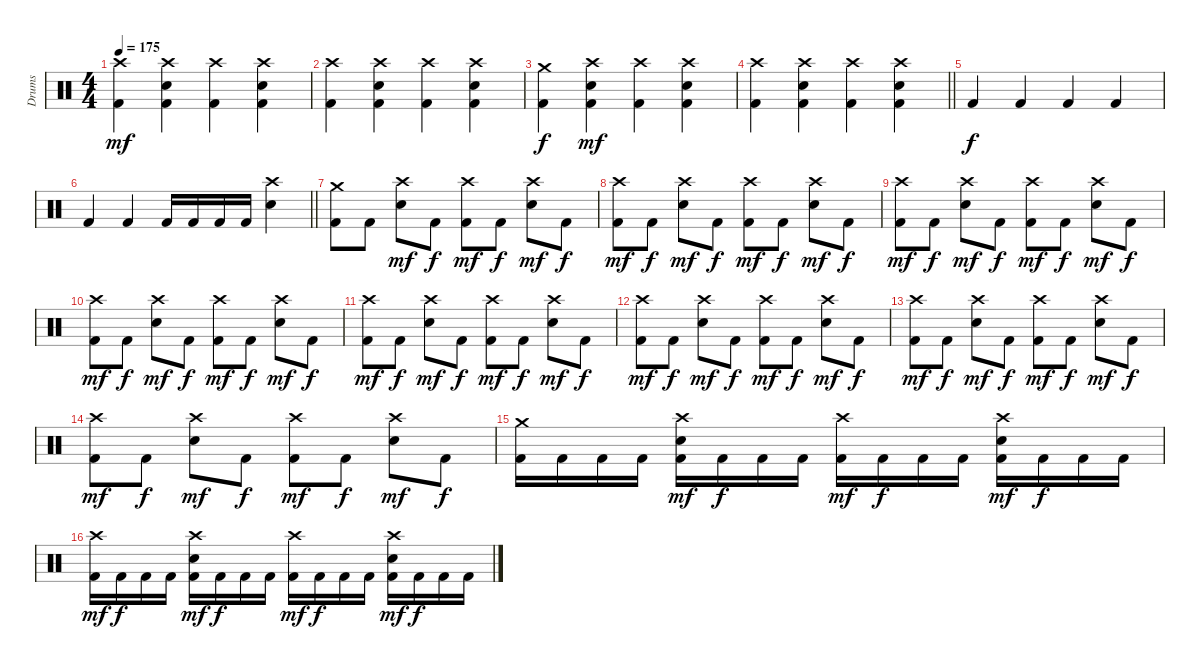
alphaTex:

\track ("Drums" "Drums") {instrument percussion}
\staff {score}
\articulation defaults
\ts (4 4)
\tempo 175
\clef neutral
\ks c
("Crash high (hit)" "Kick (hit) 2").4{dy mf} ("Crash high (hit)" "Electric Snare (hit)" "Kick (hit) 2").4 ("Crash high (hit)" "Kick (hit) 2").4 ("Crash high (hit)" "Electric Snare (hit)" "Kick (hit) 2").4 |
("Crash high (hit)" "Kick (hit) 2").4 ("Crash high (hit)" "Electric Snare (hit)" "Kick (hit) 2").4 ("Crash high (hit)" "Kick (hit) 2").4 ("Crash high (hit)" "Electric Snare (hit)" "Kick (hit) 2").4 |
("Crash medium (hit)" "Kick (hit) 2").4{dy f} ("Crash high (hit)" "Electric Snare (hit)" "Kick (hit) 2").4{dy mf} ("Crash high (hit)" "Kick (hit) 2").4 ("Crash high (hit)" "Electric Snare (hit)" "Kick (hit) 2").4 |
\barLineRight lightlight
("Crash high (hit)" "Kick (hit) 2").4 ("Crash high (hit)" "Electric Snare (hit)" "Kick (hit) 2").4 ("Crash high (hit)" "Kick (hit) 2").4 ("Crash high (hit)" "Electric Snare (hit)" "Kick (hit) 2").4 |
"Kick (hit) 2".4{dy f} "Kick (hit) 2".4 "Kick (hit) 2".4 "Kick (hit) 2".4 |
\barLineRight lightlight "Kick (hit) 2".4 "Kick (hit) 2".4 "Kick (hit) 2".16 "Kick (hit) 2".16 "Kick (hit) 2".16 "Kick (hit) 2".16
("Crash high (hit)" "Electric Snare (hit)").4 |
("Crash medium (hit)" "Kick (hit) 2").8 "Kick (hit) 2".8 ("Crash high (hit)" "Electric Snare (hit)").8{dy mf} "Kick (hit) 2".8{dy f} ("Crash high (hit)" "Kick (hit) 2").8{dy mf} "Kick (hit) 2".8{dy f} ("Crash high (hit)" "Electric Snare (hit)").8{dy mf} "Kick (hit) 2".8{dy f} |
("Crash high (hit)" "Kick (hit) 2").8{dy mf} "Kick (hit) 2".8{dy f} ("Crash high (hit)" "Electric Snare (hit)").8{dy mf} "Kick (hit) 2".8{dy f} ("Crash high (hit)" "Kick (hit) 2").8{dy mf} "Kick (hit) 2".8{dy f} ("Crash high (hit)" "Electric Snare (hit)").8{dy mf} "Kick (hit) 2".8{dy f} |
("Crash high (hit)" "Kick (hit) 2").8{dy mf} "Kick (hit) 2".8{dy f} ("Crash high (hit)" "Electric Snare (hit)").8{dy mf} "Kick (hit) 2".8{dy f} ("Crash high (hit)" "Kick (hit) 2").8{dy mf} "Kick (hit) 2".8{dy f} ("Crash high (hit)" "Electric Snare (hit)").8{dy mf} "Kick (hit) 2".8{dy f} |
("Crash high (hit)" "Kick (hit) 2").8{dy mf} "Kick (hit) 2".8{dy f} ("Crash high (hit)" "Electric Snare (hit)").8{dy mf} "Kick (hit) 2".8{dy f} ("Crash high (hit)" "Kick (hit) 2").8{dy mf} "Kick (hit) 2".8{dy f} ("Crash high (hit)" "Electric Snare (hit)").8{dy mf} "Kick (hit) 2".8{dy f} |
("Crash high (hit)" "Kick (hit) 2").8{dy mf} "Kick (hit) 2".8{dy f} ("Crash high (hit)" "Electric Snare (hit)").8{dy mf} "Kick (hit) 2".8{dy f} ("Crash high (hit)" "Kick (hit) 2").8{dy mf} "Kick (hit) 2".8{dy f} ("Crash high (hit)" "Electric Snare (hit)").8{dy mf} "Kick (hit) 2".8{dy f} |
("Crash high (hit)" "Kick (hit) 2").8{dy mf} "Kick (hit) 2".8{dy f} ("Crash high (hit)" "Electric Snare (hit)").8{dy mf} "Kick (hit) 2".8{dy f} ("Crash high (hit)" "Kick (hit) 2").8{dy mf} "Kick (hit) 2".8{dy f} ("Crash high (hit)" "Electric Snare (hit)").8{dy mf} "Kick (hit) 2".8{dy f} |
("Crash high (hit)" "Kick (hit) 2").8{dy mf} "Kick (hit) 2".8{dy f} ("Crash high (hit)" "Electric Snare (hit)").8{dy mf} "Kick (hit) 2".8{dy f} ("Crash high (hit)" "Kick (hit) 2").8{dy mf} "Kick (hit) 2".8{dy f} ("Crash high (hit)" "Electric Snare (hit)").8{dy mf} "Kick (hit) 2".8{dy f} |
("Crash high (hit)" "Kick (hit) 2").8{dy mf} "Kick (hit) 2".8{dy f} ("Crash high (hit)" "Electric Snare (hit)").8{dy mf} "Kick (hit) 2".8{dy f} ("Crash high (hit)" "Kick (hit) 2").8{dy mf} "Kick (hit) 2".8{dy f} ("Crash high (hit)" "Electric Snare (hit)").8{dy mf} "Kick (hit) 2".8{dy f} |
("Crash medium (hit)" "Kick (hit) 2").16 "Kick (hit) 2".16 "Kick (hit) 2".16 "Kick (hit) 2".16 ("Crash high (hit)" "Electric Snare (hit)" "Kick (hit) 2").16{dy mf} "Kick (hit) 2".16{dy f} "Kick (hit) 2".16 "Kick (hit) 2".16 ("Crash high (hit)" "Kick (hit) 2").16{dy mf} "Kick (hit) 2".16{dy f} "Kick (hit) 2".16 "Kick (hit) 2".16 ("Crash high (hit)" "Electric Snare (hit)" "Kick (hit) 2").16{dy mf} "Kick (hit) 2".16{dy f} "Kick (hit) 2".16 "Kick (hit) 2".16 |
("Crash high (hit)" "Kick (hit) 2").16{dy mf} "Kick (hit) 2".16{dy f} "Kick (hit) 2".16 "Kick (hit) 2".16 ("Crash high (hit)" "Electric Snare (hit)" "Kick (hit) 2").16{dy mf} "Kick (hit) 2".16{dy f} "Kick (hit) 2".16 "Kick (hit) 2".16 ("Crash high (hit)" "Kick (hit) 2").16{dy mf} "Kick (hit) 2".16{dy f} "Kick (hit) 2".16 "Kick (hit) 2".16 ("Crash high (hit)" "Electric Snare (hit)" "Kick (hit) 2").16{dy mf} "Kick (hit) 2".16{dy f} "Kick (hit) 2".16 "Kick (hit) 2".16
